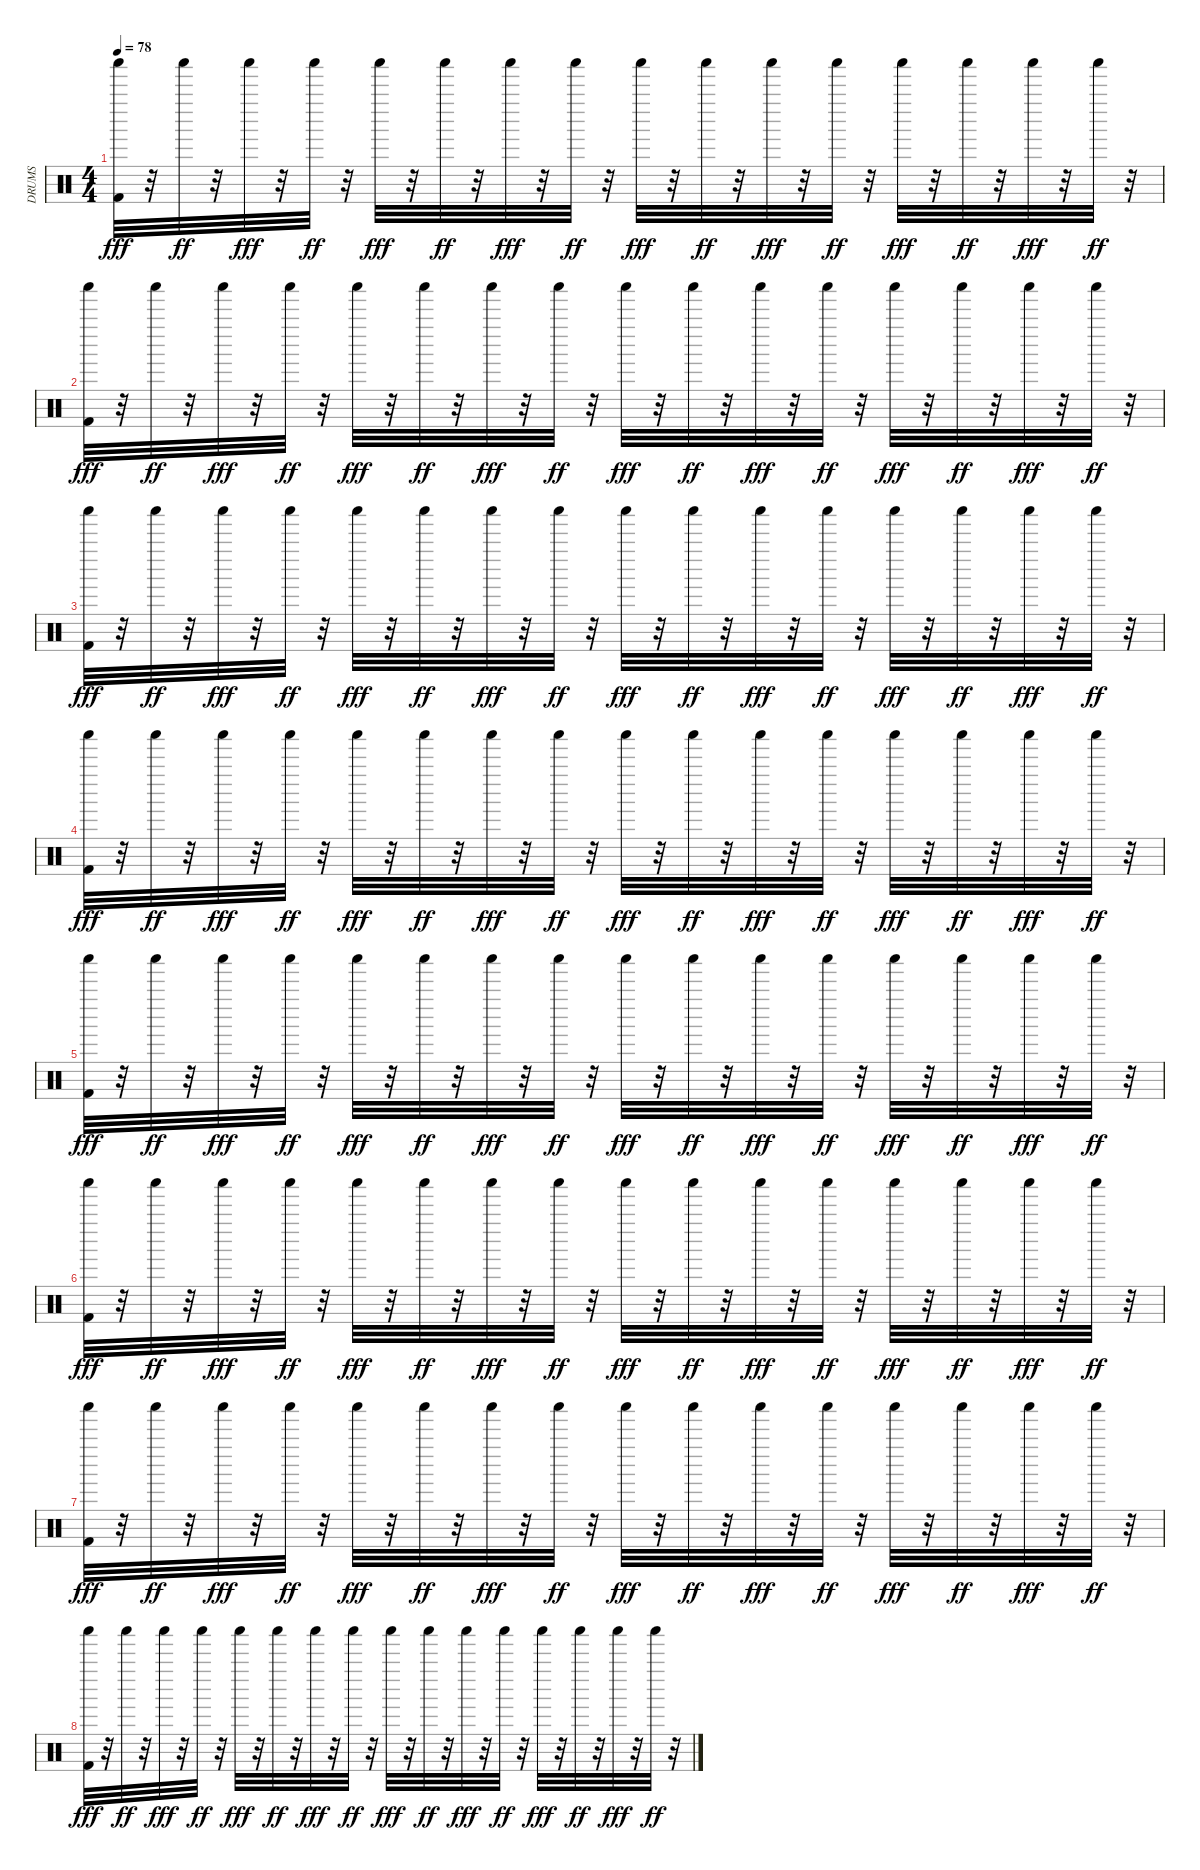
\track ("DRUMS" "DRUMS") {instrument percussion}
\staff {score}
\articulation defaults
\ts (4 4)
\tempo 78
\clef neutral
\ks c
("Shaker (hit)" "Kick (hit) 2").32{dy fff} r.32 "Shaker (hit)".32{dy ff} r.32 "Shaker (hit)".32{dy fff} r.32 "Shaker (hit)".32{dy ff} r.32 "Shaker (hit)".32{dy fff} r.32 "Shaker (hit)".32{dy ff} r.32 "Shaker (hit)".32{dy fff} r.32 "Shaker (hit)".32{dy ff} r.32 "Shaker (hit)".32{dy fff} r.32 "Shaker (hit)".32{dy ff} r.32 "Shaker (hit)".32{dy fff} r.32 "Shaker (hit)".32{dy ff} r.32 "Shaker (hit)".32{dy fff} r.32 "Shaker (hit)".32{dy ff} r.32 "Shaker (hit)".32{dy fff} r.32 "Shaker (hit)".32{dy ff} r.32 |
("Shaker (hit)" "Kick (hit) 2").32{dy fff} r.32 "Shaker (hit)".32{dy ff} r.32 "Shaker (hit)".32{dy fff} r.32 "Shaker (hit)".32{dy ff} r.32 "Shaker (hit)".32{dy fff} r.32 "Shaker (hit)".32{dy ff} r.32 "Shaker (hit)".32{dy fff} r.32 "Shaker (hit)".32{dy ff} r.32 "Shaker (hit)".32{dy fff} r.32 "Shaker (hit)".32{dy ff} r.32 "Shaker (hit)".32{dy fff} r.32 "Shaker (hit)".32{dy ff} r.32 "Shaker (hit)".32{dy fff} r.32 "Shaker (hit)".32{dy ff} r.32 "Shaker (hit)".32{dy fff} r.32 "Shaker (hit)".32{dy ff} r.32 |
("Shaker (hit)" "Kick (hit) 2").32{dy fff} r.32 "Shaker (hit)".32{dy ff} r.32 "Shaker (hit)".32{dy fff} r.32 "Shaker (hit)".32{dy ff} r.32 "Shaker (hit)".32{dy fff} r.32 "Shaker (hit)".32{dy ff} r.32 "Shaker (hit)".32{dy fff} r.32 "Shaker (hit)".32{dy ff} r.32 "Shaker (hit)".32{dy fff} r.32 "Shaker (hit)".32{dy ff} r.32 "Shaker (hit)".32{dy fff} r.32 "Shaker (hit)".32{dy ff} r.32 "Shaker (hit)".32{dy fff} r.32 "Shaker (hit)".32{dy ff} r.32 "Shaker (hit)".32{dy fff} r.32 "Shaker (hit)".32{dy ff} r.32 |
("Shaker (hit)" "Kick (hit) 2").32{dy fff} r.32 "Shaker (hit)".32{dy ff} r.32 "Shaker (hit)".32{dy fff} r.32 "Shaker (hit)".32{dy ff} r.32 "Shaker (hit)".32{dy fff} r.32 "Shaker (hit)".32{dy ff} r.32 "Shaker (hit)".32{dy fff} r.32 "Shaker (hit)".32{dy ff} r.32 "Shaker (hit)".32{dy fff} r.32 "Shaker (hit)".32{dy ff} r.32 "Shaker (hit)".32{dy fff} r.32 "Shaker (hit)".32{dy ff} r.32 "Shaker (hit)".32{dy fff} r.32 "Shaker (hit)".32{dy ff} r.32 "Shaker (hit)".32{dy fff} r.32 "Shaker (hit)".32{dy ff} r.32 |
("Shaker (hit)" "Kick (hit) 2").32{dy fff} r.32 "Shaker (hit)".32{dy ff} r.32 "Shaker (hit)".32{dy fff} r.32 "Shaker (hit)".32{dy ff} r.32 "Shaker (hit)".32{dy fff} r.32 "Shaker (hit)".32{dy ff} r.32 "Shaker (hit)".32{dy fff} r.32 "Shaker (hit)".32{dy ff} r.32 "Shaker (hit)".32{dy fff} r.32 "Shaker (hit)".32{dy ff} r.32 "Shaker (hit)".32{dy fff} r.32 "Shaker (hit)".32{dy ff} r.32 "Shaker (hit)".32{dy fff} r.32 "Shaker (hit)".32{dy ff} r.32 "Shaker (hit)".32{dy fff} r.32 "Shaker (hit)".32{dy ff} r.32 |
("Shaker (hit)" "Kick (hit) 2").32{dy fff} r.32 "Shaker (hit)".32{dy ff} r.32 "Shaker (hit)".32{dy fff} r.32 "Shaker (hit)".32{dy ff} r.32 "Shaker (hit)".32{dy fff} r.32 "Shaker (hit)".32{dy ff} r.32 "Shaker (hit)".32{dy fff} r.32 "Shaker (hit)".32{dy ff} r.32 "Shaker (hit)".32{dy fff} r.32 "Shaker (hit)".32{dy ff} r.32 "Shaker (hit)".32{dy fff} r.32 "Shaker (hit)".32{dy ff} r.32 "Shaker (hit)".32{dy fff} r.32 "Shaker (hit)".32{dy ff} r.32 "Shaker (hit)".32{dy fff} r.32 "Shaker (hit)".32{dy ff} r.32 |
("Shaker (hit)" "Kick (hit) 2").32{dy fff} r.32 "Shaker (hit)".32{dy ff} r.32 "Shaker (hit)".32{dy fff} r.32 "Shaker (hit)".32{dy ff} r.32 "Shaker (hit)".32{dy fff} r.32 "Shaker (hit)".32{dy ff} r.32 "Shaker (hit)".32{dy fff} r.32 "Shaker (hit)".32{dy ff} r.32 "Shaker (hit)".32{dy fff} r.32 "Shaker (hit)".32{dy ff} r.32 "Shaker (hit)".32{dy fff} r.32 "Shaker (hit)".32{dy ff} r.32 "Shaker (hit)".32{dy fff} r.32 "Shaker (hit)".32{dy ff} r.32 "Shaker (hit)".32{dy fff} r.32 "Shaker (hit)".32{dy ff} r.32 |
("Shaker (hit)" "Kick (hit) 2").32{dy fff} r.32 "Shaker (hit)".32{dy ff} r.32 "Shaker (hit)".32{dy fff} r.32 "Shaker (hit)".32{dy ff} r.32 "Shaker (hit)".32{dy fff} r.32 "Shaker (hit)".32{dy ff} r.32 "Shaker (hit)".32{dy fff} r.32 "Shaker (hit)".32{dy ff} r.32 "Shaker (hit)".32{dy fff} r.32 "Shaker (hit)".32{dy ff} r.32 "Shaker (hit)".32{dy fff} r.32 "Shaker (hit)".32{dy ff} r.32 "Shaker (hit)".32{dy fff} r.32 "Shaker (hit)".32{dy ff} r.32 "Shaker (hit)".32{dy fff} r.32 "Shaker (hit)".32{dy ff} r.32
